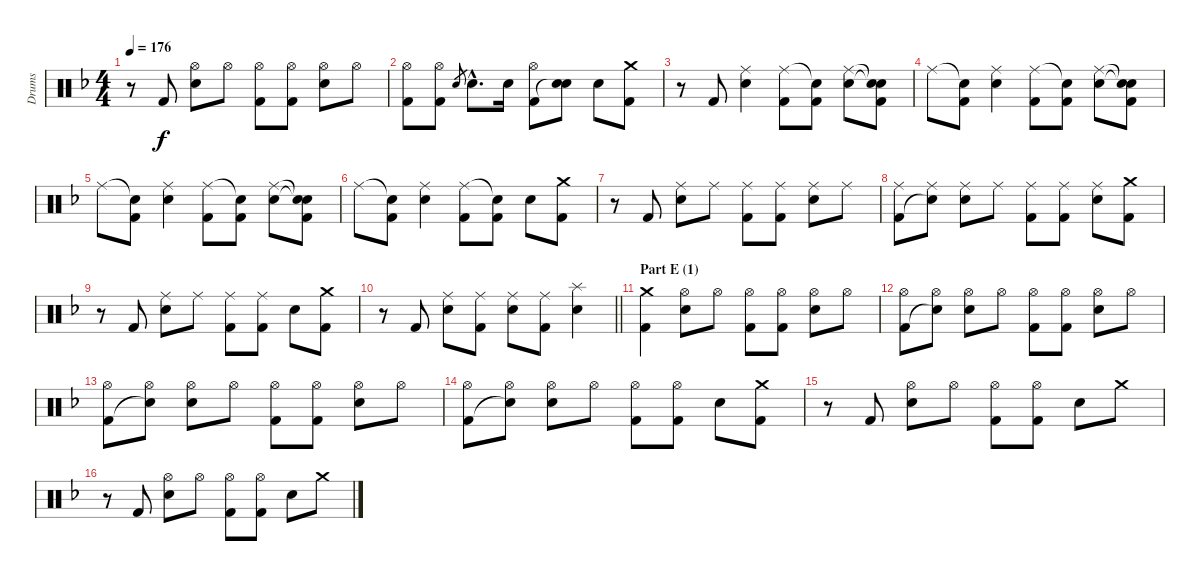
\track ("Drums" "Drums") {instrument percussion}
\staff {score}
\articulation defaults
\ts (4 4)
\tempo 176
\clef neutral
\ks f
r.8{dy f} "Kick (hit) 2".8 ("Hi-Hat (open)" "Electric Snare (hit)").8 "Hi-Hat (open)".8 ("Hi-Hat (open)" "Kick (hit) 2").8 ("Hi-Hat (open)" "Kick (hit) 2").8 ("Hi-Hat (open)" "Electric Snare (hit)").8 "Hi-Hat (open)".8 |
("Hi-Hat (open)" "Kick (hit) 2").8 ("Hi-Hat (open)" "Kick (hit) 2").8 "Electric Snare (hit)".8{gr} "Electric Snare (hit)"{hac}.8{d} "Electric Snare (hit)".16 ("Hi-Hat (open)" "Kick (hit) 2").8 ("Electric Snare (hit)" "Snare (hit)"{t}).8 "Electric Snare (hit)".8 ("Crash medium (hit)" "Kick (hit) 2").8 |
r.8 "Kick (hit) 2".8 ("Ride (middle)" "Electric Snare (hit)").4 ("Ride (middle)" "Kick (hit) 2").8 ("Snare (hit)"{t} "Kick (hit) 2").8 ("Ride (middle)" "Electric Snare (hit)").8 ("Snare (hit)"{t} "Snare (hit)"{t} "Kick (hit) 2").8 |
"Ride (middle)".8 ("Snare (hit)"{t} "Kick (hit) 2").8 ("Ride (middle)" "Electric Snare (hit)").4 ("Ride (middle)" "Kick (hit) 2").8 ("Snare (hit)"{t} "Kick (hit) 2").8 ("Ride (middle)" "Electric Snare (hit)").8 ("Snare (hit)"{t} "Snare (hit)"{t} "Kick (hit) 2").8 |
"Ride (middle)".8 ("Snare (hit)"{t} "Kick (hit) 2").8 ("Ride (middle)" "Electric Snare (hit)").4 ("Ride (middle)" "Kick (hit) 2").8 ("Snare (hit)"{t} "Kick (hit) 2").8 ("Ride (middle)" "Electric Snare (hit)").8 ("Snare (hit)"{t} "Snare (hit)"{t} "Kick (hit) 2").8 |
"Ride (middle)".8 ("Snare (hit)"{t} "Kick (hit) 2").8 ("Ride (middle)" "Electric Snare (hit)").4 ("Ride (middle)" "Kick (hit) 2").8 ("Snare (hit)"{t} "Kick (hit) 2").8 "Electric Snare (hit)".8 ("Crash medium (hit)" "Kick (hit) 2").8 |
r.8 "Kick (hit) 2".8 ("Ride (middle)" "Electric Snare (hit)").8 "Ride (middle)".8 ("Ride (middle)" "Kick (hit) 2").8 ("Ride (middle)" "Kick (hit) 2").8 ("Ride (middle)" "Electric Snare (hit)").8 "Ride (middle)".8 |
("Ride (middle)" "Kick (hit) 2").8 ("Ride (middle)" "Snare (hit)"{t}).8 ("Ride (middle)" "Electric Snare (hit)").8 "Ride (middle)".8 ("Ride (middle)" "Kick (hit) 2").8 ("Ride (middle)" "Kick (hit) 2").8 ("Ride (middle)" "Electric Snare (hit)").8 ("Crash medium (hit)" "Kick (hit) 2").8 |
r.8 "Kick (hit) 2".8 ("Ride (middle)" "Electric Snare (hit)").8 "Ride (middle)".8 ("Ride (middle)" "Kick (hit) 2").8 ("Ride (middle)" "Kick (hit) 2").8 "Electric Snare (hit)".8 ("Crash medium (hit)" "Kick (hit) 2").8 |
\barLineRight lightlight
r.8 "Kick (hit) 2".8 ("Ride (middle)" "Electric Snare (hit)").8 ("Ride (middle)" "Kick (hit) 2").8 ("Ride (middle)" "Electric Snare (hit)").8 ("Ride (middle)" "Kick (hit) 2").8 ("Splash (hit)" "Electric Snare (hit)").4 |
\section ("" "Part E (1)")
("Crash medium (hit)" "Kick (hit) 2").4 ("Hi-Hat (open)" "Electric Snare (hit)").8 "Hi-Hat (open)".8 ("Hi-Hat (open)" "Kick (hit) 2").8 ("Hi-Hat (open)" "Kick (hit) 2").8 ("Hi-Hat (open)" "Electric Snare (hit)").8 "Hi-Hat (open)".8 |
("Hi-Hat (open)" "Kick (hit) 2").8 ("Hi-Hat (open)" "Snare (hit)"{t}).8 ("Hi-Hat (open)" "Electric Snare (hit)").8 "Hi-Hat (open)".8 ("Hi-Hat (open)" "Kick (hit) 2").8 ("Hi-Hat (open)" "Kick (hit) 2").8 ("Hi-Hat (open)" "Electric Snare (hit)").8 "Hi-Hat (open)".8 |
("Hi-Hat (open)" "Kick (hit) 2").8 ("Hi-Hat (open)" "Snare (hit)"{t}).8 ("Hi-Hat (open)" "Electric Snare (hit)").8 "Hi-Hat (open)".8 ("Hi-Hat (open)" "Kick (hit) 2").8 ("Hi-Hat (open)" "Kick (hit) 2").8 ("Hi-Hat (open)" "Electric Snare (hit)").8 "Hi-Hat (open)".8 |
("Hi-Hat (open)" "Kick (hit) 2").8 ("Hi-Hat (open)" "Snare (hit)"{t}).8 ("Hi-Hat (open)" "Electric Snare (hit)").8 "Hi-Hat (open)".8 ("Hi-Hat (open)" "Kick (hit) 2").8 ("Hi-Hat (open)" "Kick (hit) 2").8 "Electric Snare (hit)".8 ("Crash medium (hit)" "Kick (hit) 2").8 |
r.8 "Kick (hit) 2".8 ("Hi-Hat (open)" "Electric Snare (hit)").8 "Hi-Hat (open)".8 ("Hi-Hat (open)" "Kick (hit) 2").8 ("Hi-Hat (open)" "Kick (hit) 2").8 "Electric Snare (hit)".8 "Crash medium (hit)".8 |
r.8 "Kick (hit) 2".8 ("Hi-Hat (open)" "Electric Snare (hit)").8 "Hi-Hat (open)".8 ("Hi-Hat (open)" "Kick (hit) 2").8 ("Hi-Hat (open)" "Kick (hit) 2").8 "Electric Snare (hit)".8 "Crash medium (hit)".8
